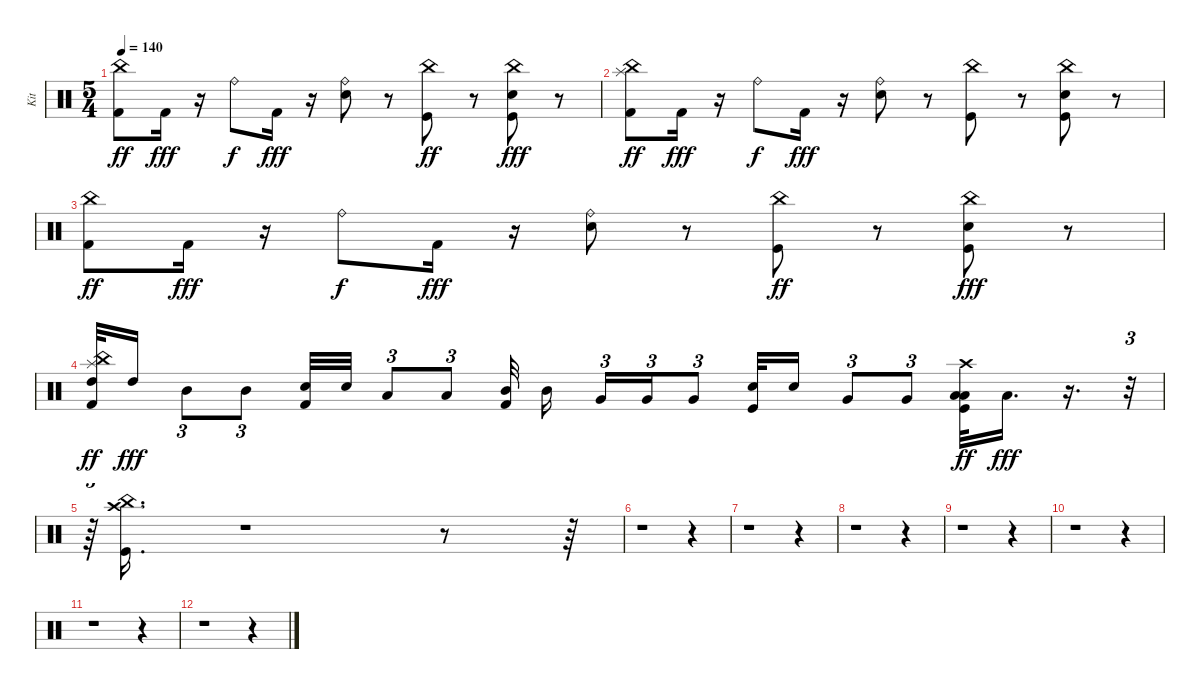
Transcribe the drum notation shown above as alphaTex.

\track ("Kit" "Kit") {instrument percussion}
\staff {score}
\articulation defaults
\ts (5 4)
\tempo 140
\clef neutral
\ks c
("Kick (hit) 2" "China (hit)").8{dy ff} "Kick (hit) 2".16{dy fff} r.16 "Ride (bell)".8{dy f} "Kick (hit) 2".16{dy fff} r.16 ("Snare (hit) 2" "Ride (bell)").8 r.8 ("Kick (hit)" "China (hit)").8{dy ff} r.8 ("Kick (hit)" "Snare (hit) 2" "China (hit)").8{dy fff} r.8 |
("Kick (hit) 2" "China (hit)" "Splash (hit)").8{dy ff} "Kick (hit) 2".16{dy fff} r.16 "Ride (bell)".8{dy f} "Kick (hit) 2".16{dy fff} r.16 ("Snare (hit) 2" "Ride (bell)").8 r.8 ("Kick (hit)" "China (hit)").8 r.8 ("Kick (hit)" "Snare (hit) 2" "China (hit)").8 r.8 |
("Kick (hit) 2" "China (hit)").8{dy ff} "Kick (hit) 2".16{dy fff} r.16 "Ride (bell)".8{dy f} "Kick (hit) 2".16{dy fff} r.16 ("Snare (hit) 2" "Ride (bell)").8 r.8 ("Kick (hit)" "China (hit)").8{dy ff} r.8 ("Kick (hit)" "Snare (hit) 2" "China (hit)").8{dy fff} r.8 |
("Kick (hit) 2" "High Tom (hit)" "China (hit)" "Splash (hit)").32{dy ff} "High Tom (hit)".16{dy fff} "Mid Tom (hit)".8{tu (3 2)} "Mid Tom (hit)".8{tu (3 2)} ("Kick (hit) 2" "Snare (hit) 2").32 "Snare (hit) 2".32 "Low Tom (hit)".8{tu (3 2)} "Low Tom (hit)".8{tu (3 2)} ("Kick (hit) 2" "Mid Tom (hit)").32 "Mid Tom (hit)".16{beam splitsecondary} "Very Low Tom (hit)".16{tu (3 2)} "Very Low Tom (hit)".16{tu (3 2)} "Very Low Tom (hit)".8{tu (3 2)} ("Kick (hit)" "Snare (hit) 2").32 "Snare (hit) 2".16 "Very Low Tom (hit)".8{tu (3 2)} "Very Low Tom (hit)".8{tu (3 2)} ("Kick (hit)" "Low Floor Tom (hit)" "Low Tom (hit)" "Crash high (hit)").32{dy ff} "Low Tom (hit)".16{d dy fff} r.16{d} r.32{tu (3 2)} |
r.64{tu (3 2)} ("Kick (hit)" "Crash high (hit)" "China (hit)").16{d} r.1 r.8 r.64 |
r.1 r.4 |
r.1 r.4 |
r.1 r.4 |
r.1 r.4 |
r.1 r.4 |
r.1 r.4 |
r.1 r.4
